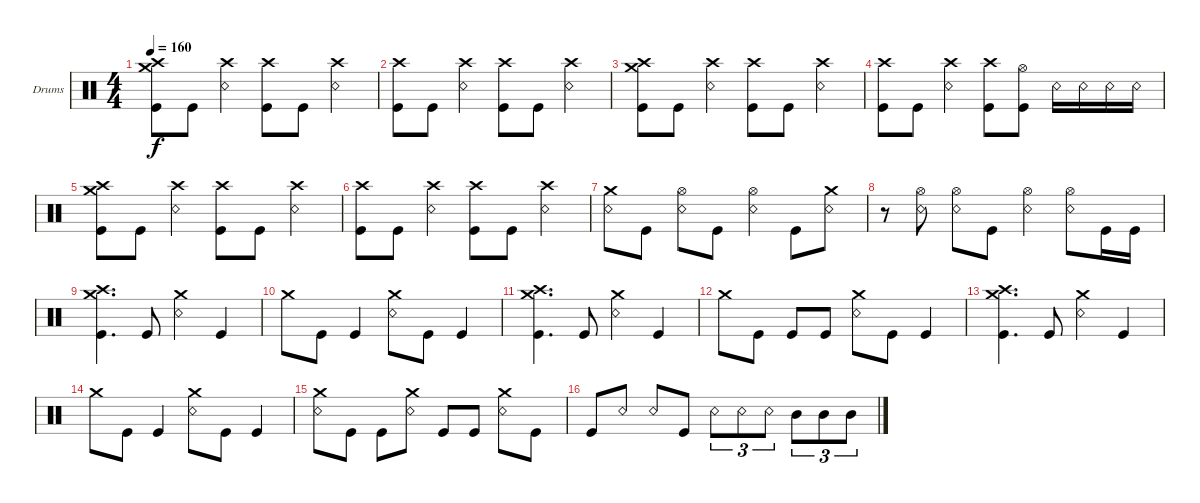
\bracketExtendMode groupsimilarinstruments
\firstSystemTrackNameOrientation horizontal
\otherSystemsTrackNameOrientation horizontal
\track ("Drumkit" "Drums") {instrument percussion}
\staff {score}
\articulation defaults
\ts (4 4)
\tempo 160
\clef neutral
\scale
0.333333
\ks c
("Crash medium (hit)" "Crash high (hit)" "Kick (hit)").8{dy f} "Kick (hit)".8 ("Crash high (hit)" "Snare (rim shot)").4 ("Crash high (hit)" "Kick (hit)").8 "Kick (hit)".8 ("Crash high (hit)" "Snare (rim shot)").4 |
\scale
0.333333 ("Crash high (hit)" "Kick (hit)").8 "Kick (hit)".8 ("Crash high (hit)" "Snare (rim shot)").4 ("Crash high (hit)" "Kick (hit)").8 "Kick (hit)".8 ("Crash high (hit)" "Snare (rim shot)").4 |
\scale
0.333333 ("Crash medium (hit)" "Crash high (hit)" "Kick (hit)").8 "Kick (hit)".8 ("Crash high (hit)" "Snare (rim shot)").4 ("Crash high (hit)" "Kick (hit)").8 "Kick (hit)".8 ("Crash high (hit)" "Snare (rim shot)").4 |
\scale
0.333333 ("Crash high (hit)" "Kick (hit)").8 "Kick (hit)".8 ("Crash high (hit)" "Snare (rim shot)").4 ("Crash high (hit)" "Kick (hit)").8 ("Hi-Hat (open)" "Kick (hit)").8 "Snare (rim shot)".16 "Snare (rim shot)".16 "Snare (rim shot)".16 "Snare (rim shot)".16 |
\scale
0.333333 ("Crash medium (hit)" "Crash high (hit)" "Kick (hit)").8 "Kick (hit)".8 ("Crash high (hit)" "Snare (rim shot)").4 ("Crash high (hit)" "Kick (hit)").8 "Kick (hit)".8 ("Crash high (hit)" "Snare (rim shot)").4 |
\scale
0.333333 ("Crash high (hit)" "Kick (hit)").8 "Kick (hit)".8 ("Crash high (hit)" "Snare (rim shot)").4 ("Crash high (hit)" "Kick (hit)").8 "Kick (hit)".8 ("Crash high (hit)" "Snare (rim shot)").4 |
\scale
0.333333 ("Crash medium (hit)" "Snare (rim shot)").8 "Kick (hit)".8 ("Hi-Hat (open)" "Snare (rim shot)").8 "Kick (hit)".8 ("Hi-Hat (open)" "Snare (rim shot)").4 "Kick (hit)".8 ("Crash medium (hit)" "Snare (rim shot)").8 |
\scale
0.333333 r.8 ("Hi-Hat (open)" "Snare (rim shot)").8 ("Hi-Hat (open)" "Snare (rim shot)").8 "Kick (hit)".8 ("Hi-Hat (open)" "Snare (rim shot)").4 ("Hi-Hat (open)" "Snare (rim shot)").8 "Kick (hit)".16 "Kick (hit)".16 |
\scale
0.333333 ("Crash medium (hit)" "Crash high (hit)" "Kick (hit)").4{d} "Kick (hit)".8 ("Crash medium (hit)" "Snare (rim shot)").4 "Kick (hit)".4 |
\scale
0.333333 "Crash medium (hit)".8 "Kick (hit)".8 "Kick (hit)".4 ("Crash medium (hit)" "Snare (rim shot)").8 "Kick (hit)".8 "Kick (hit)".4 |
\scale
0.333333 ("Crash medium (hit)" "Crash high (hit)" "Kick (hit)").4{d} "Kick (hit)".8 ("Crash medium (hit)" "Snare (rim shot)").4 "Kick (hit)".4 |
\scale
0.333333 "Crash medium (hit)".8 "Kick (hit)".8 "Kick (hit)".8 "Kick (hit)".8 ("Crash medium (hit)" "Snare (rim shot)").8 "Kick (hit)".8 "Kick (hit)".4 |
\scale
0.333333 ("Crash medium (hit)" "Crash high (hit)" "Kick (hit)").4{d} "Kick (hit)".8 ("Crash medium (hit)" "Snare (rim shot)").4 "Kick (hit)".4 |
\scale
0.333333 "Crash medium (hit)".8 "Kick (hit)".8 "Kick (hit)".4 ("Crash medium (hit)" "Snare (rim shot)").8 "Kick (hit)".8 "Kick (hit)".4 |
\scale
0.333333 ("Crash medium (hit)" "Snare (rim shot)").8 "Kick (hit)".8 "Kick (hit)".8 ("Crash medium (hit)" "Snare (rim shot)").8 "Kick (hit)".8 "Kick (hit)".8 ("Crash medium (hit)" "Snare (rim shot)").8 "Kick (hit)".8 |
\scale
0.333333 "Kick (hit)".8 "Snare (rim shot)".8 "Snare (rim shot)".8 "Kick (hit)".8 "Snare (rim shot)".8{tu (3 2)} "Snare (rim shot)".8{tu (3 2)} "Snare (rim shot)".8{tu (3 2)} "Mid Tom (hit)".8{tu (3 2)} "Mid Tom (hit)".8{tu (3 2)} "Mid Tom (hit)".8{tu (3 2)}
